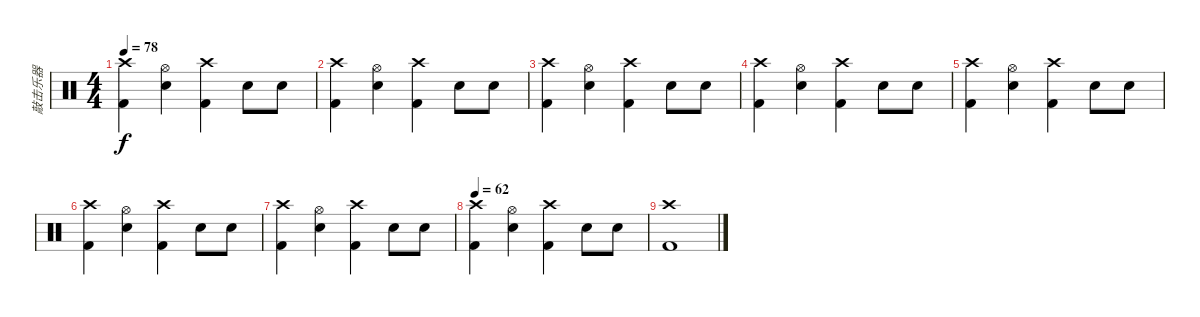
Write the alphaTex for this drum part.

\track ("敲击乐器" "敲击乐器") {instrument percussion}
\staff {score}
\articulation defaults
\ts (4 4)
\tempo 78
\clef neutral
\ks c
("Crash high (hit)" "Kick (hit) 2").4{dy f} ("Hi-Hat (open)" "Electric Snare (hit)").4 ("Crash high (hit)" "Kick (hit) 2").4 "Electric Snare (hit)".8 "Electric Snare (hit)".8 |
("Crash high (hit)" "Kick (hit) 2").4 ("Hi-Hat (open)" "Electric Snare (hit)").4 ("Crash high (hit)" "Kick (hit) 2").4 "Electric Snare (hit)".8 "Electric Snare (hit)".8 |
("Crash high (hit)" "Kick (hit) 2").4 ("Hi-Hat (open)" "Electric Snare (hit)").4 ("Crash high (hit)" "Kick (hit) 2").4 "Electric Snare (hit)".8 "Electric Snare (hit)".8 |
("Crash high (hit)" "Kick (hit) 2").4 ("Hi-Hat (open)" "Electric Snare (hit)").4 ("Crash high (hit)" "Kick (hit) 2").4 "Electric Snare (hit)".8 "Electric Snare (hit)".8 |
("Crash high (hit)" "Kick (hit) 2").4 ("Hi-Hat (open)" "Electric Snare (hit)").4 ("Crash high (hit)" "Kick (hit) 2").4 "Electric Snare (hit)".8 "Electric Snare (hit)".8 |
("Crash high (hit)" "Kick (hit) 2").4 ("Hi-Hat (open)" "Electric Snare (hit)").4 ("Crash high (hit)" "Kick (hit) 2").4 "Electric Snare (hit)".8 "Electric Snare (hit)".8 |
("Crash high (hit)" "Kick (hit) 2").4 ("Hi-Hat (open)" "Electric Snare (hit)").4 ("Crash high (hit)" "Kick (hit) 2").4 "Electric Snare (hit)".8 "Electric Snare (hit)".8 |
\tempo 62
("Crash high (hit)" "Kick (hit) 2").4 ("Hi-Hat (open)" "Electric Snare (hit)").4 ("Crash high (hit)" "Kick (hit) 2").4 "Electric Snare (hit)".8 "Electric Snare (hit)".8 |
("Crash high (hit)" "Kick (hit) 2").1
